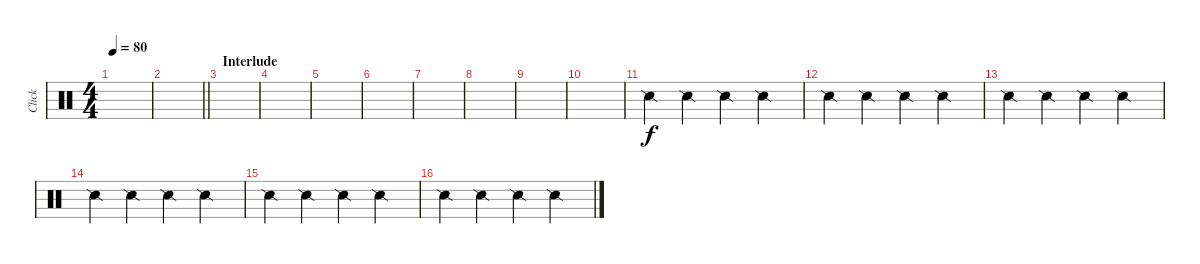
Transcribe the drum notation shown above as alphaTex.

\track ("Click" "Click") {instrument percussion}
\staff {score}
\articulation defaults
\ts (4 4)
\tempo 80
\clef neutral
\ks c
|
\barLineRight lightlight
|
\section ("" "Interlude")
|
|
|
|
|
|
|
|
"Snare (side stick) 2".4 "Snare (side stick) 2".4 "Snare (side stick) 2".4 "Snare (side stick) 2".4 |
"Snare (side stick) 2".4 "Snare (side stick) 2".4 "Snare (side stick) 2".4 "Snare (side stick) 2".4 |
"Snare (side stick) 2".4 "Snare (side stick) 2".4 "Snare (side stick) 2".4 "Snare (side stick) 2".4 |
"Snare (side stick) 2".4 "Snare (side stick) 2".4 "Snare (side stick) 2".4 "Snare (side stick) 2".4 |
"Snare (side stick) 2".4 "Snare (side stick) 2".4 "Snare (side stick) 2".4 "Snare (side stick) 2".4 |
"Snare (side stick) 2".4 "Snare (side stick) 2".4 "Snare (side stick) 2".4 "Snare (side stick) 2".4
